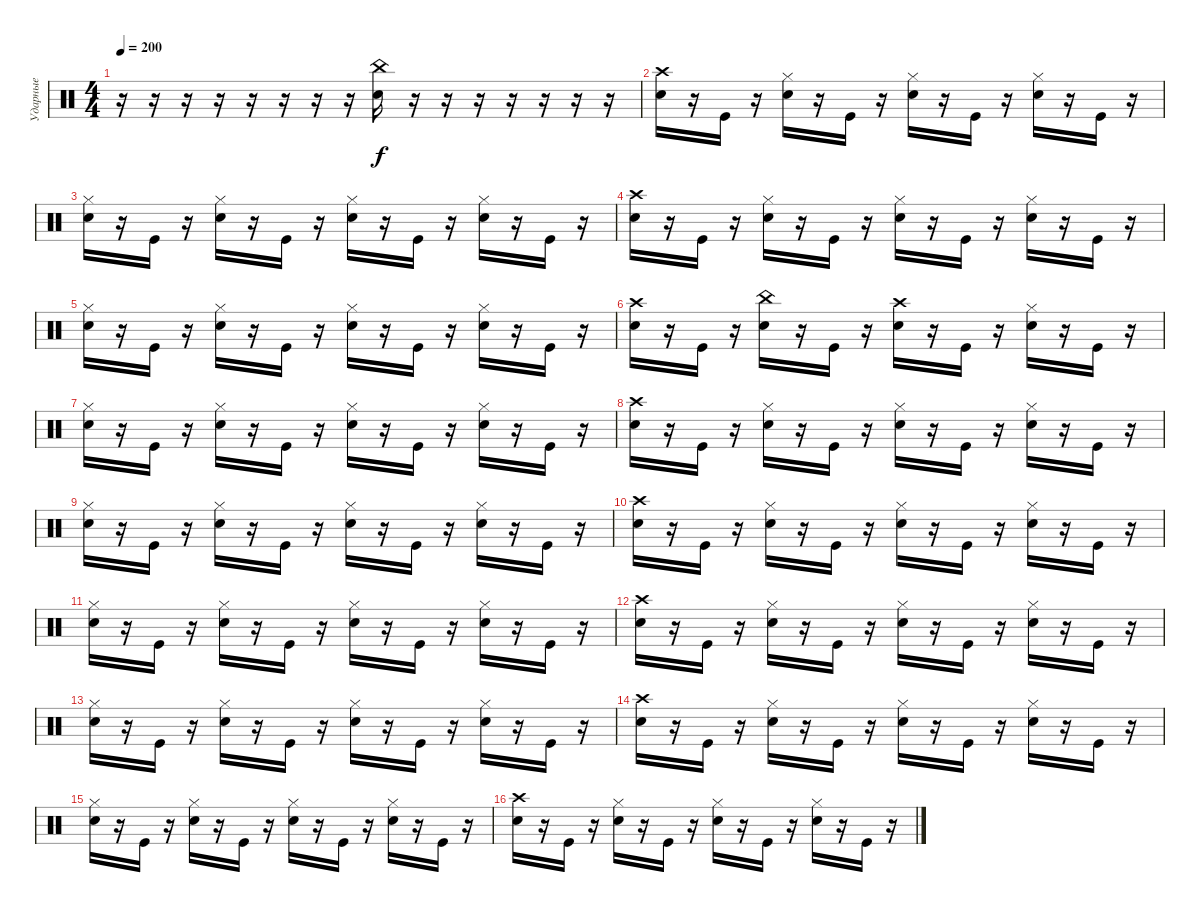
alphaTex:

\track ("Ударные" "Ударные") {instrument percussion}
\staff {score}
\articulation defaults
\ts (4 4)
\tempo 200
\clef neutral
\ks c
r.16{dy f} r.16 r.16 r.16 r.16 r.16 r.16 r.16 ("Electric Snare (hit)" "China (hit)").16 r.16 r.16 r.16 r.16 r.16 r.16 r.16 |
("Crash high (hit)" "Electric Snare (hit)").16 r.16 "Kick (hit)".16 r.16 ("Hi-Hat (closed)" "Electric Snare (hit)").16 r.16 "Kick (hit)".16 r.16 ("Hi-Hat (closed)" "Electric Snare (hit)").16 r.16 "Kick (hit)".16 r.16 ("Hi-Hat (closed)" "Electric Snare (hit)").16 r.16 "Kick (hit)".16 r.16 |
("Hi-Hat (closed)" "Electric Snare (hit)").16 r.16 "Kick (hit)".16 r.16 ("Hi-Hat (closed)" "Electric Snare (hit)").16 r.16 "Kick (hit)".16 r.16 ("Hi-Hat (closed)" "Electric Snare (hit)").16 r.16 "Kick (hit)".16 r.16 ("Hi-Hat (closed)" "Electric Snare (hit)").16 r.16 "Kick (hit)".16 r.16 |
("Crash high (hit)" "Electric Snare (hit)").16 r.16 "Kick (hit)".16 r.16 ("Hi-Hat (closed)" "Electric Snare (hit)").16 r.16 "Kick (hit)".16 r.16 ("Hi-Hat (closed)" "Electric Snare (hit)").16 r.16 "Kick (hit)".16 r.16 ("Hi-Hat (closed)" "Electric Snare (hit)").16 r.16 "Kick (hit)".16 r.16 |
("Hi-Hat (closed)" "Electric Snare (hit)").16 r.16 "Kick (hit)".16 r.16 ("Hi-Hat (closed)" "Electric Snare (hit)").16 r.16 "Kick (hit)".16 r.16 ("Hi-Hat (closed)" "Electric Snare (hit)").16 r.16 "Kick (hit)".16 r.16 ("Hi-Hat (closed)" "Electric Snare (hit)").16 r.16 "Kick (hit)".16 r.16 |
("Crash high (hit)" "Electric Snare (hit)").16 r.16 "Kick (hit)".16 r.16 ("China (hit)" "Electric Snare (hit)").16 r.16 "Kick (hit)".16 r.16 ("Crash high (hit)" "Electric Snare (hit)").16 r.16 "Kick (hit)".16 r.16 ("Hi-Hat (closed)" "Electric Snare (hit)").16 r.16 "Kick (hit)".16 r.16 |
("Hi-Hat (closed)" "Electric Snare (hit)").16 r.16 "Kick (hit)".16 r.16 ("Hi-Hat (closed)" "Electric Snare (hit)").16 r.16 "Kick (hit)".16 r.16 ("Hi-Hat (closed)" "Electric Snare (hit)").16 r.16 "Kick (hit)".16 r.16 ("Hi-Hat (closed)" "Electric Snare (hit)").16 r.16 "Kick (hit)".16 r.16 |
("Crash high (hit)" "Electric Snare (hit)").16 r.16 "Kick (hit)".16 r.16 ("Hi-Hat (closed)" "Electric Snare (hit)").16 r.16 "Kick (hit)".16 r.16 ("Hi-Hat (closed)" "Electric Snare (hit)").16 r.16 "Kick (hit)".16 r.16 ("Hi-Hat (closed)" "Electric Snare (hit)").16 r.16 "Kick (hit)".16 r.16 |
("Hi-Hat (closed)" "Electric Snare (hit)").16 r.16 "Kick (hit)".16 r.16 ("Hi-Hat (closed)" "Electric Snare (hit)").16 r.16 "Kick (hit)".16 r.16 ("Hi-Hat (closed)" "Electric Snare (hit)").16 r.16 "Kick (hit)".16 r.16 ("Hi-Hat (closed)" "Electric Snare (hit)").16 r.16 "Kick (hit)".16 r.16 |
("Crash high (hit)" "Electric Snare (hit)").16 r.16 "Kick (hit)".16 r.16 ("Hi-Hat (closed)" "Electric Snare (hit)").16 r.16 "Kick (hit)".16 r.16 ("Hi-Hat (closed)" "Electric Snare (hit)").16 r.16 "Kick (hit)".16 r.16 ("Hi-Hat (closed)" "Electric Snare (hit)").16 r.16 "Kick (hit)".16 r.16 |
("Hi-Hat (closed)" "Electric Snare (hit)").16 r.16 "Kick (hit)".16 r.16 ("Hi-Hat (closed)" "Electric Snare (hit)").16 r.16 "Kick (hit)".16 r.16 ("Hi-Hat (closed)" "Electric Snare (hit)").16 r.16 "Kick (hit)".16 r.16 ("Hi-Hat (closed)" "Electric Snare (hit)").16 r.16 "Kick (hit)".16 r.16 |
("Crash high (hit)" "Electric Snare (hit)").16 r.16 "Kick (hit)".16 r.16 ("Hi-Hat (closed)" "Electric Snare (hit)").16 r.16 "Kick (hit)".16 r.16 ("Hi-Hat (closed)" "Electric Snare (hit)").16 r.16 "Kick (hit)".16 r.16 ("Hi-Hat (closed)" "Electric Snare (hit)").16 r.16 "Kick (hit)".16 r.16 |
("Hi-Hat (closed)" "Electric Snare (hit)").16 r.16 "Kick (hit)".16 r.16 ("Hi-Hat (closed)" "Electric Snare (hit)").16 r.16 "Kick (hit)".16 r.16 ("Hi-Hat (closed)" "Electric Snare (hit)").16 r.16 "Kick (hit)".16 r.16 ("Hi-Hat (closed)" "Electric Snare (hit)").16 r.16 "Kick (hit)".16 r.16 |
("Crash high (hit)" "Electric Snare (hit)").16 r.16 "Kick (hit)".16 r.16 ("Hi-Hat (closed)" "Electric Snare (hit)").16 r.16 "Kick (hit)".16 r.16 ("Hi-Hat (closed)" "Electric Snare (hit)").16 r.16 "Kick (hit)".16 r.16 ("Hi-Hat (closed)" "Electric Snare (hit)").16 r.16 "Kick (hit)".16 r.16 |
("Hi-Hat (closed)" "Electric Snare (hit)").16 r.16 "Kick (hit)".16 r.16 ("Hi-Hat (closed)" "Electric Snare (hit)").16 r.16 "Kick (hit)".16 r.16 ("Hi-Hat (closed)" "Electric Snare (hit)").16 r.16 "Kick (hit)".16 r.16 ("Hi-Hat (closed)" "Electric Snare (hit)").16 r.16 "Kick (hit)".16 r.16 |
("Crash high (hit)" "Electric Snare (hit)").16 r.16 "Kick (hit)".16 r.16 ("Hi-Hat (closed)" "Electric Snare (hit)").16 r.16 "Kick (hit)".16 r.16 ("Hi-Hat (closed)" "Electric Snare (hit)").16 r.16 "Kick (hit)".16 r.16 ("Hi-Hat (closed)" "Electric Snare (hit)").16 r.16 "Kick (hit)".16 r.16
